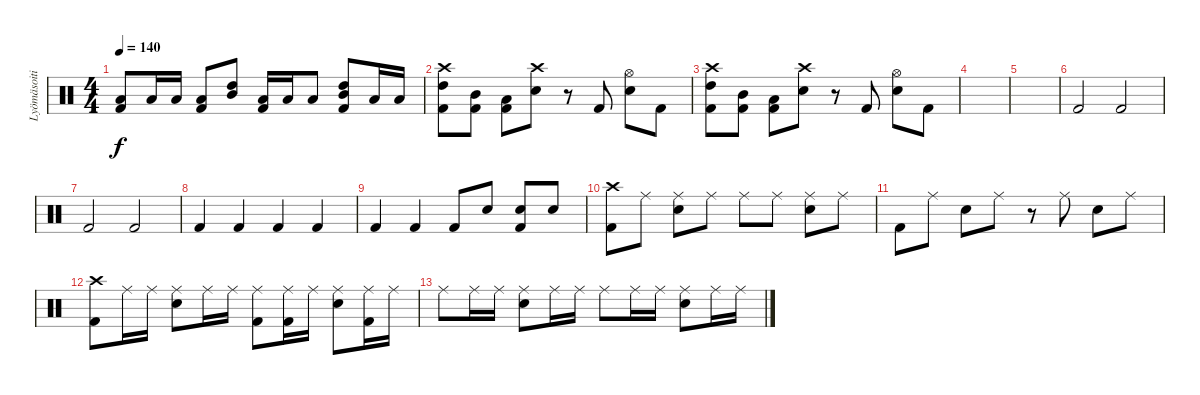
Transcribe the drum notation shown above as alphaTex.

\track ("Lyömäsoitin" "Lyömäsoiti") {instrument percussion}
\staff {score}
\articulation defaults
\ts (4 4)
\tempo 140
\clef neutral
\ks c
("Low Floor Tom (hit)" "Kick (hit) 2").8{dy f} "Low Floor Tom (hit)".16 "Low Floor Tom (hit)".16 ("Low Floor Tom (hit)" "Kick (hit) 2").8 ("High Tom (hit)" "Mid Tom (hit)").8 ("Low Floor Tom (hit)" "Kick (hit) 2").16 "Low Floor Tom (hit)".16 "Low Floor Tom (hit)".8 ("High Tom (hit)" "Mid Tom (hit)" "Kick (hit) 2").8 "Low Floor Tom (hit)".16 "Low Floor Tom (hit)".16 |
("Crash high (hit)" "High Tom (hit)" "Kick (hit) 2").8 ("Mid Tom (hit)" "Kick (hit) 2").8 ("Low Floor Tom (hit)" "Kick (hit) 2").8 ("Crash high (hit)" "Snare (hit) 2").8 r.8 "Kick (hit) 2".8 ("Hi-Hat (open)" "Snare (hit) 2").8 "Kick (hit) 2".8 |
("Crash high (hit)" "High Tom (hit)" "Kick (hit) 2").8 ("Mid Tom (hit)" "Kick (hit) 2").8 ("Low Floor Tom (hit)" "Kick (hit) 2").8 ("Crash high (hit)" "Snare (hit) 2").8 r.8 "Kick (hit) 2".8 ("Hi-Hat (open)" "Snare (hit) 2").8 "Kick (hit) 2".8 |
|
|
"Kick (hit) 2".2 "Kick (hit) 2".2 |
"Kick (hit) 2".2 "Kick (hit) 2".2 |
"Kick (hit) 2".4 "Kick (hit) 2".4 "Kick (hit) 2".4 "Kick (hit) 2".4 |
"Kick (hit) 2".4 "Kick (hit) 2".4 "Kick (hit) 2".8 "Snare (hit) 2".8 ("Snare (hit) 2" "Kick (hit) 2").8 "Snare (hit) 2".8 |
("Crash high (hit)" "Kick (hit) 2").8 "Ride (middle)".8 ("Ride (middle)" "Snare (hit) 2").8 "Ride (middle)".8 "Ride (middle)".8 "Ride (middle)".8 ("Ride (middle)" "Snare (hit) 2").8 "Ride (middle)".8 |
"Kick (hit) 2".8 "Ride (middle)".8 "Snare (hit) 2".8 "Ride (middle)".8 r.8 "Ride (middle)".8 "Snare (hit) 2".8 "Ride (middle)".8 |
("Crash high (hit)" "Kick (hit) 2").8 "Ride (middle)".16 "Ride (middle)".16 ("Ride (middle)" "Snare (hit) 2").8 "Ride (middle)".16 "Ride (middle)".16 ("Ride (middle)" "Kick (hit) 2").8 ("Ride (middle)" "Kick (hit) 2").16 "Ride (middle)".16 ("Ride (middle)" "Snare (hit) 2").8 ("Ride (middle)" "Kick (hit) 2").16 "Ride (middle)".16 |
"Ride (middle)".8 "Ride (middle)".16 "Ride (middle)".16 ("Ride (middle)" "Snare (hit) 2").8 "Ride (middle)".16 "Ride (middle)".16 "Ride (middle)".8 "Ride (middle)".16 "Ride (middle)".16 ("Ride (middle)" "Snare (hit) 2").8 "Ride (middle)".16 "Ride (middle)".16
